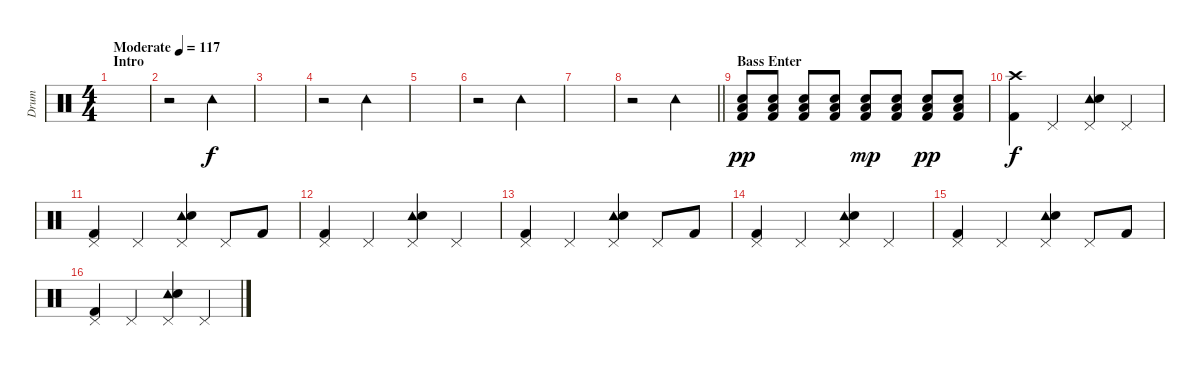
\track ("Drum" "Drum") {instrument percussion}
\staff {score}
\articulation defaults
\ts (4 4)
\section ("" "Intro")
\tempo (117 "Moderate")
\clef neutral
\ks c
|
r.2 "Tambourine (hit)".2 |
|
r.2 "Tambourine (hit)".2 |
|
r.2 "Tambourine (hit)".2 |
|
\barLineRight lightlight
r.2 "Tambourine (hit)".2 |
\section ("" "Bass Enter")
("Electric Snare (hit)" "Low Tom (hit)" "Kick (hit) 2").8{dy pp} ("Electric Snare (hit)" "Low Tom (hit)" "Kick (hit) 2").8 ("Electric Snare (hit)" "Low Tom (hit)" "Kick (hit) 2").8 ("Electric Snare (hit)" "Low Tom (hit)" "Kick (hit) 2").8 ("Electric Snare (hit)" "Low Tom (hit)" "Kick (hit) 2").8{dy mp} ("Electric Snare (hit)" "Low Tom (hit)" "Kick (hit) 2").8 ("Electric Snare (hit)" "Low Tom (hit)" "Kick (hit) 2").8{dy pp} ("Electric Snare (hit)" "Low Tom (hit)" "Kick (hit) 2").8 |
("Crash high (hit)" "Kick (hit) 2").4{dy f} "Pedal Hi-Hat (hit)".4 ("Pedal Hi-Hat (hit)" "Tambourine (hit)" "Electric Snare (hit)").4 "Pedal Hi-Hat (hit)".4 |
("Pedal Hi-Hat (hit)" "Kick (hit) 2").4 "Pedal Hi-Hat (hit)".4 ("Pedal Hi-Hat (hit)" "Tambourine (hit)" "Electric Snare (hit)").4 "Pedal Hi-Hat (hit)".8 "Kick (hit) 2".8 |
("Pedal Hi-Hat (hit)" "Kick (hit) 2").4 "Pedal Hi-Hat (hit)".4 ("Pedal Hi-Hat (hit)" "Tambourine (hit)" "Electric Snare (hit)").4 "Pedal Hi-Hat (hit)".4 |
("Pedal Hi-Hat (hit)" "Kick (hit) 2").4 "Pedal Hi-Hat (hit)".4 ("Pedal Hi-Hat (hit)" "Tambourine (hit)" "Electric Snare (hit)").4 "Pedal Hi-Hat (hit)".8 "Kick (hit) 2".8 |
("Pedal Hi-Hat (hit)" "Kick (hit) 2").4 "Pedal Hi-Hat (hit)".4 ("Pedal Hi-Hat (hit)" "Tambourine (hit)" "Electric Snare (hit)").4 "Pedal Hi-Hat (hit)".4 |
("Pedal Hi-Hat (hit)" "Kick (hit) 2").4 "Pedal Hi-Hat (hit)".4 ("Pedal Hi-Hat (hit)" "Tambourine (hit)" "Electric Snare (hit)").4 "Pedal Hi-Hat (hit)".8 "Kick (hit) 2".8 |
("Pedal Hi-Hat (hit)" "Kick (hit) 2").4 "Pedal Hi-Hat (hit)".4 ("Pedal Hi-Hat (hit)" "Tambourine (hit)" "Electric Snare (hit)").4 "Pedal Hi-Hat (hit)".4
